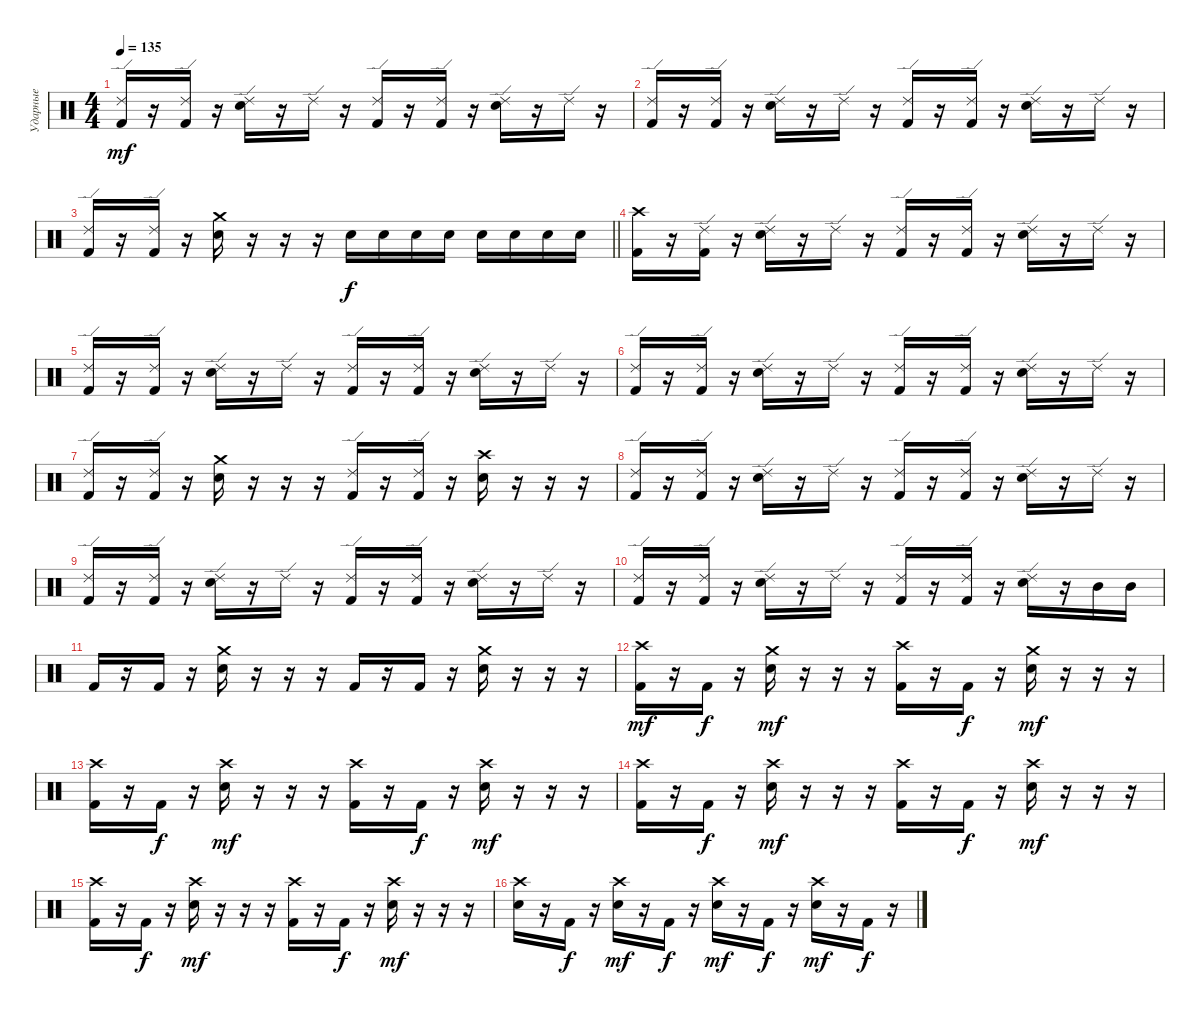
\track ("Ударные" "Ударные") {instrument percussion}
\staff {score}
\articulation defaults
\ts (4 4)
\tempo 135
\clef neutral
\ks c
("Ride (edge) 2" "Kick (hit) 2").16{dy mf} r.16 ("Ride (edge) 2" "Kick (hit) 2").16 r.16 ("Ride (edge) 2" "Electric Snare (hit)").16 r.16 "Ride (edge) 2".16 r.16 ("Ride (edge) 2" "Kick (hit) 2").16 r.16 ("Ride (edge) 2" "Kick (hit) 2").16 r.16 ("Ride (edge) 2" "Electric Snare (hit)").16 r.16 "Ride (edge) 2".16 r.16 |
("Ride (edge) 2" "Kick (hit) 2").16 r.16 ("Ride (edge) 2" "Kick (hit) 2").16 r.16 ("Ride (edge) 2" "Electric Snare (hit)").16 r.16 "Ride (edge) 2".16 r.16 ("Ride (edge) 2" "Kick (hit) 2").16 r.16 ("Ride (edge) 2" "Kick (hit) 2").16 r.16 ("Ride (edge) 2" "Electric Snare (hit)").16 r.16 "Ride (edge) 2".16 r.16 |
\barLineRight lightlight
("Ride (edge) 2" "Kick (hit) 2").16 r.16 ("Ride (edge) 2" "Kick (hit) 2").16 r.16 ("Crash medium (hit)" "Electric Snare (hit)").16 r.16 r.16 r.16 "Electric Snare (hit)".16{dy f} "Electric Snare (hit)".16 "Electric Snare (hit)".16 "Electric Snare (hit)".16 "Electric Snare (hit)".16 "Electric Snare (hit)".16 "Electric Snare (hit)".16 "Electric Snare (hit)".16 |
("Crash high (hit)" "Kick (hit) 2").16 r.16 ("Ride (edge) 2" "Kick (hit) 2").16 r.16 ("Ride (edge) 2" "Electric Snare (hit)").16 r.16 "Ride (edge) 2".16 r.16 ("Ride (edge) 2" "Kick (hit) 2").16 r.16 ("Ride (edge) 2" "Kick (hit) 2").16 r.16 ("Ride (edge) 2" "Electric Snare (hit)").16 r.16 "Ride (edge) 2".16 r.16 |
("Ride (edge) 2" "Kick (hit) 2").16 r.16 ("Ride (edge) 2" "Kick (hit) 2").16 r.16 ("Ride (edge) 2" "Electric Snare (hit)").16 r.16 "Ride (edge) 2".16 r.16 ("Ride (edge) 2" "Kick (hit) 2").16 r.16 ("Ride (edge) 2" "Kick (hit) 2").16 r.16 ("Ride (edge) 2" "Electric Snare (hit)").16 r.16 "Ride (edge) 2".16 r.16 |
("Ride (edge) 2" "Kick (hit) 2").16 r.16 ("Ride (edge) 2" "Kick (hit) 2").16 r.16 ("Ride (edge) 2" "Electric Snare (hit)").16 r.16 "Ride (edge) 2".16 r.16 ("Ride (edge) 2" "Kick (hit) 2").16 r.16 ("Ride (edge) 2" "Kick (hit) 2").16 r.16 ("Ride (edge) 2" "Electric Snare (hit)").16 r.16 "Ride (edge) 2".16 r.16 |
("Ride (edge) 2" "Kick (hit) 2").16 r.16 ("Ride (edge) 2" "Kick (hit) 2").16 r.16 ("Crash medium (hit)" "Electric Snare (hit)").16 r.16 r.16 r.16 ("Ride (edge) 2" "Kick (hit) 2").16 r.16 ("Ride (edge) 2" "Kick (hit) 2").16 r.16 ("Crash high (hit)" "Electric Snare (hit)").16 r.16 r.16 r.16 |
("Ride (edge) 2" "Kick (hit) 2").16 r.16 ("Ride (edge) 2" "Kick (hit) 2").16 r.16 ("Ride (edge) 2" "Electric Snare (hit)").16 r.16 "Ride (edge) 2".16 r.16 ("Ride (edge) 2" "Kick (hit) 2").16 r.16 ("Ride (edge) 2" "Kick (hit) 2").16 r.16 ("Ride (edge) 2" "Electric Snare (hit)").16 r.16 "Ride (edge) 2".16 r.16 |
("Ride (edge) 2" "Kick (hit) 2").16 r.16 ("Ride (edge) 2" "Kick (hit) 2").16 r.16 ("Ride (edge) 2" "Electric Snare (hit)").16 r.16 "Ride (edge) 2".16 r.16 ("Ride (edge) 2" "Kick (hit) 2").16 r.16 ("Ride (edge) 2" "Kick (hit) 2").16 r.16 ("Ride (edge) 2" "Electric Snare (hit)").16 r.16 "Ride (edge) 2".16 r.16 |
("Ride (edge) 2" "Kick (hit) 2").16 r.16 ("Ride (edge) 2" "Kick (hit) 2").16 r.16 ("Ride (edge) 2" "Electric Snare (hit)").16 r.16 "Ride (edge) 2".16 r.16 ("Ride (edge) 2" "Kick (hit) 2").16 r.16 ("Ride (edge) 2" "Kick (hit) 2").16 r.16 ("Ride (edge) 2" "Electric Snare (hit)").16 r.16 "Mid Tom (hit)".16 "Mid Tom (hit)".16 |
"Kick (hit) 2".16 r.16 "Kick (hit) 2".16 r.16 ("Crash medium (hit)" "Electric Snare (hit)").16 r.16 r.16 r.16 "Kick (hit) 2".16 r.16 "Kick (hit) 2".16 r.16 ("Crash medium (hit)" "Electric Snare (hit)").16 r.16 r.16 r.16 |
("Crash high (hit)" "Kick (hit) 2").16{dy mf} r.16 "Kick (hit) 2".16{dy f} r.16 ("Crash medium (hit)" "Electric Snare (hit)").16{dy mf} r.16 r.16 r.16 ("Crash high (hit)" "Kick (hit) 2").16 r.16 "Kick (hit) 2".16{dy f} r.16 ("Crash medium (hit)" "Electric Snare (hit)").16{dy mf} r.16 r.16 r.16 |
("Crash high (hit)" "Kick (hit) 2").16 r.16 "Kick (hit) 2".16{dy f} r.16 ("Crash high (hit)" "Electric Snare (hit)").16{dy mf} r.16 r.16 r.16 ("Crash high (hit)" "Kick (hit) 2").16 r.16 "Kick (hit) 2".16{dy f} r.16 ("Crash high (hit)" "Electric Snare (hit)").16{dy mf} r.16 r.16 r.16 |
("Crash high (hit)" "Kick (hit) 2").16 r.16 "Kick (hit) 2".16{dy f} r.16 ("Crash high (hit)" "Electric Snare (hit)").16{dy mf} r.16 r.16 r.16 ("Crash high (hit)" "Kick (hit) 2").16 r.16 "Kick (hit) 2".16{dy f} r.16 ("Crash high (hit)" "Electric Snare (hit)").16{dy mf} r.16 r.16 r.16 |
("Crash high (hit)" "Kick (hit) 2").16 r.16 "Kick (hit) 2".16{dy f} r.16 ("Crash high (hit)" "Electric Snare (hit)").16{dy mf} r.16 r.16 r.16 ("Crash high (hit)" "Kick (hit) 2").16 r.16 "Kick (hit) 2".16{dy f} r.16 ("Crash high (hit)" "Electric Snare (hit)").16{dy mf} r.16 r.16 r.16 |
("Crash high (hit)" "Electric Snare (hit)").16 r.16 "Kick (hit) 2".16{dy f} r.16 ("Crash high (hit)" "Electric Snare (hit)").16{dy mf} r.16 "Kick (hit) 2".16{dy f} r.16 ("Crash high (hit)" "Electric Snare (hit)").16{dy mf} r.16 "Kick (hit) 2".16{dy f} r.16 ("Crash high (hit)" "Electric Snare (hit)").16{dy mf} r.16 "Kick (hit) 2".16{dy f} r.16
